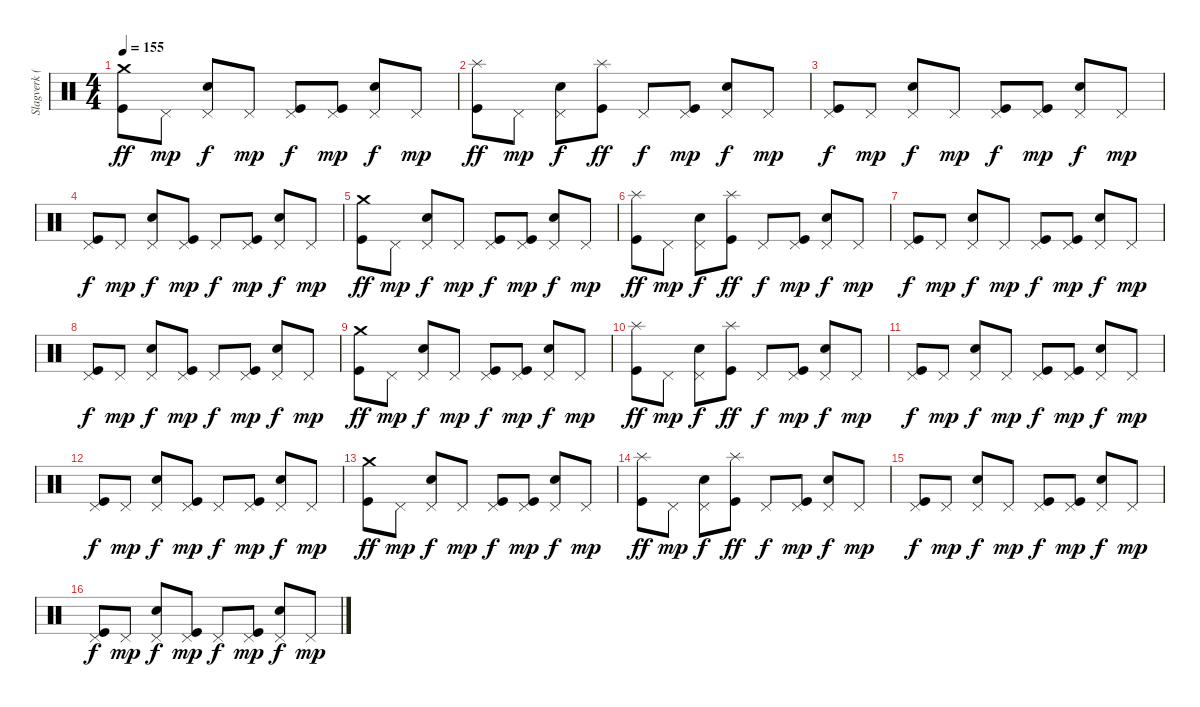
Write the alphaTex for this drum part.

\track ("Slagverk (Jan)" "Slagverk (") {instrument percussion}
\staff {score}
\articulation defaults
\ts (4 4)
\tempo 155
\clef neutral
\ks c
("Kick (hit)" "Crash medium (hit)").8{dy ff} "Pedal Hi-Hat (hit)".8{dy mp} ("Snare (hit) 2" "Pedal Hi-Hat (hit)").8{dy f} "Pedal Hi-Hat (hit)".8{dy mp} ("Kick (hit)" "Pedal Hi-Hat (hit)").8{dy f} ("Kick (hit)" "Pedal Hi-Hat (hit)").8{dy mp} ("Snare (hit) 2" "Pedal Hi-Hat (hit)").8{dy f} "Pedal Hi-Hat (hit)".8{dy mp} |
("Kick (hit)" "Splash (hit)").8{dy ff} "Pedal Hi-Hat (hit)".8{dy mp} ("Snare (hit) 2" "Pedal Hi-Hat (hit)").8{dy f} ("Kick (hit)" "Splash (hit)").8{dy ff} "Pedal Hi-Hat (hit)".8{dy f} ("Kick (hit)" "Pedal Hi-Hat (hit)").8{dy mp} ("Snare (hit) 2" "Pedal Hi-Hat (hit)").8{dy f} "Pedal Hi-Hat (hit)".8{dy mp} |
("Kick (hit)" "Pedal Hi-Hat (hit)").8{dy f} "Pedal Hi-Hat (hit)".8{dy mp} ("Snare (hit) 2" "Pedal Hi-Hat (hit)").8{dy f} "Pedal Hi-Hat (hit)".8{dy mp} ("Kick (hit)" "Pedal Hi-Hat (hit)").8{dy f} ("Kick (hit)" "Pedal Hi-Hat (hit)").8{dy mp} ("Snare (hit) 2" "Pedal Hi-Hat (hit)").8{dy f} "Pedal Hi-Hat (hit)".8{dy mp} |
("Kick (hit)" "Pedal Hi-Hat (hit)").8{dy f} "Pedal Hi-Hat (hit)".8{dy mp} ("Snare (hit) 2" "Pedal Hi-Hat (hit)").8{dy f} ("Kick (hit)" "Pedal Hi-Hat (hit)").8{dy mp} "Pedal Hi-Hat (hit)".8{dy f} ("Kick (hit)" "Pedal Hi-Hat (hit)").8{dy mp} ("Snare (hit) 2" "Pedal Hi-Hat (hit)").8{dy f} "Pedal Hi-Hat (hit)".8{dy mp} |
("Kick (hit)" "Crash medium (hit)").8{dy ff} "Pedal Hi-Hat (hit)".8{dy mp} ("Snare (hit) 2" "Pedal Hi-Hat (hit)").8{dy f} "Pedal Hi-Hat (hit)".8{dy mp} ("Kick (hit)" "Pedal Hi-Hat (hit)").8{dy f} ("Kick (hit)" "Pedal Hi-Hat (hit)").8{dy mp} ("Snare (hit) 2" "Pedal Hi-Hat (hit)").8{dy f} "Pedal Hi-Hat (hit)".8{dy mp} |
("Kick (hit)" "Splash (hit)").8{dy ff} "Pedal Hi-Hat (hit)".8{dy mp} ("Snare (hit) 2" "Pedal Hi-Hat (hit)").8{dy f} ("Kick (hit)" "Splash (hit)").8{dy ff} "Pedal Hi-Hat (hit)".8{dy f} ("Kick (hit)" "Pedal Hi-Hat (hit)").8{dy mp} ("Snare (hit) 2" "Pedal Hi-Hat (hit)").8{dy f} "Pedal Hi-Hat (hit)".8{dy mp} |
("Kick (hit)" "Pedal Hi-Hat (hit)").8{dy f} "Pedal Hi-Hat (hit)".8{dy mp} ("Snare (hit) 2" "Pedal Hi-Hat (hit)").8{dy f} "Pedal Hi-Hat (hit)".8{dy mp} ("Kick (hit)" "Pedal Hi-Hat (hit)").8{dy f} ("Kick (hit)" "Pedal Hi-Hat (hit)").8{dy mp} ("Snare (hit) 2" "Pedal Hi-Hat (hit)").8{dy f} "Pedal Hi-Hat (hit)".8{dy mp} |
("Kick (hit)" "Pedal Hi-Hat (hit)").8{dy f} "Pedal Hi-Hat (hit)".8{dy mp} ("Snare (hit) 2" "Pedal Hi-Hat (hit)").8{dy f} ("Kick (hit)" "Pedal Hi-Hat (hit)").8{dy mp} "Pedal Hi-Hat (hit)".8{dy f} ("Kick (hit)" "Pedal Hi-Hat (hit)").8{dy mp} ("Snare (hit) 2" "Pedal Hi-Hat (hit)").8{dy f} "Pedal Hi-Hat (hit)".8{dy mp} |
("Kick (hit)" "Crash medium (hit)").8{dy ff} "Pedal Hi-Hat (hit)".8{dy mp} ("Snare (hit) 2" "Pedal Hi-Hat (hit)").8{dy f} "Pedal Hi-Hat (hit)".8{dy mp} ("Kick (hit)" "Pedal Hi-Hat (hit)").8{dy f} ("Kick (hit)" "Pedal Hi-Hat (hit)").8{dy mp} ("Snare (hit) 2" "Pedal Hi-Hat (hit)").8{dy f} "Pedal Hi-Hat (hit)".8{dy mp} |
("Kick (hit)" "Splash (hit)").8{dy ff} "Pedal Hi-Hat (hit)".8{dy mp} ("Snare (hit) 2" "Pedal Hi-Hat (hit)").8{dy f} ("Kick (hit)" "Splash (hit)").8{dy ff} "Pedal Hi-Hat (hit)".8{dy f} ("Kick (hit)" "Pedal Hi-Hat (hit)").8{dy mp} ("Snare (hit) 2" "Pedal Hi-Hat (hit)").8{dy f} "Pedal Hi-Hat (hit)".8{dy mp} |
("Kick (hit)" "Pedal Hi-Hat (hit)").8{dy f} "Pedal Hi-Hat (hit)".8{dy mp} ("Snare (hit) 2" "Pedal Hi-Hat (hit)").8{dy f} "Pedal Hi-Hat (hit)".8{dy mp} ("Kick (hit)" "Pedal Hi-Hat (hit)").8{dy f} ("Kick (hit)" "Pedal Hi-Hat (hit)").8{dy mp} ("Snare (hit) 2" "Pedal Hi-Hat (hit)").8{dy f} "Pedal Hi-Hat (hit)".8{dy mp} |
("Kick (hit)" "Pedal Hi-Hat (hit)").8{dy f} "Pedal Hi-Hat (hit)".8{dy mp} ("Snare (hit) 2" "Pedal Hi-Hat (hit)").8{dy f} ("Kick (hit)" "Pedal Hi-Hat (hit)").8{dy mp} "Pedal Hi-Hat (hit)".8{dy f} ("Kick (hit)" "Pedal Hi-Hat (hit)").8{dy mp} ("Snare (hit) 2" "Pedal Hi-Hat (hit)").8{dy f} "Pedal Hi-Hat (hit)".8{dy mp} |
("Kick (hit)" "Crash medium (hit)").8{dy ff} "Pedal Hi-Hat (hit)".8{dy mp} ("Snare (hit) 2" "Pedal Hi-Hat (hit)").8{dy f} "Pedal Hi-Hat (hit)".8{dy mp} ("Kick (hit)" "Pedal Hi-Hat (hit)").8{dy f} ("Kick (hit)" "Pedal Hi-Hat (hit)").8{dy mp} ("Snare (hit) 2" "Pedal Hi-Hat (hit)").8{dy f} "Pedal Hi-Hat (hit)".8{dy mp} |
("Kick (hit)" "Splash (hit)").8{dy ff} "Pedal Hi-Hat (hit)".8{dy mp} ("Snare (hit) 2" "Pedal Hi-Hat (hit)").8{dy f} ("Kick (hit)" "Splash (hit)").8{dy ff} "Pedal Hi-Hat (hit)".8{dy f} ("Kick (hit)" "Pedal Hi-Hat (hit)").8{dy mp} ("Snare (hit) 2" "Pedal Hi-Hat (hit)").8{dy f} "Pedal Hi-Hat (hit)".8{dy mp} |
("Kick (hit)" "Pedal Hi-Hat (hit)").8{dy f} "Pedal Hi-Hat (hit)".8{dy mp} ("Snare (hit) 2" "Pedal Hi-Hat (hit)").8{dy f} "Pedal Hi-Hat (hit)".8{dy mp} ("Kick (hit)" "Pedal Hi-Hat (hit)").8{dy f} ("Kick (hit)" "Pedal Hi-Hat (hit)").8{dy mp} ("Snare (hit) 2" "Pedal Hi-Hat (hit)").8{dy f} "Pedal Hi-Hat (hit)".8{dy mp} |
("Kick (hit)" "Pedal Hi-Hat (hit)").8{dy f} "Pedal Hi-Hat (hit)".8{dy mp} ("Snare (hit) 2" "Pedal Hi-Hat (hit)").8{dy f} ("Kick (hit)" "Pedal Hi-Hat (hit)").8{dy mp} "Pedal Hi-Hat (hit)".8{dy f} ("Kick (hit)" "Pedal Hi-Hat (hit)").8{dy mp} ("Snare (hit) 2" "Pedal Hi-Hat (hit)").8{dy f} "Pedal Hi-Hat (hit)".8{dy mp}
